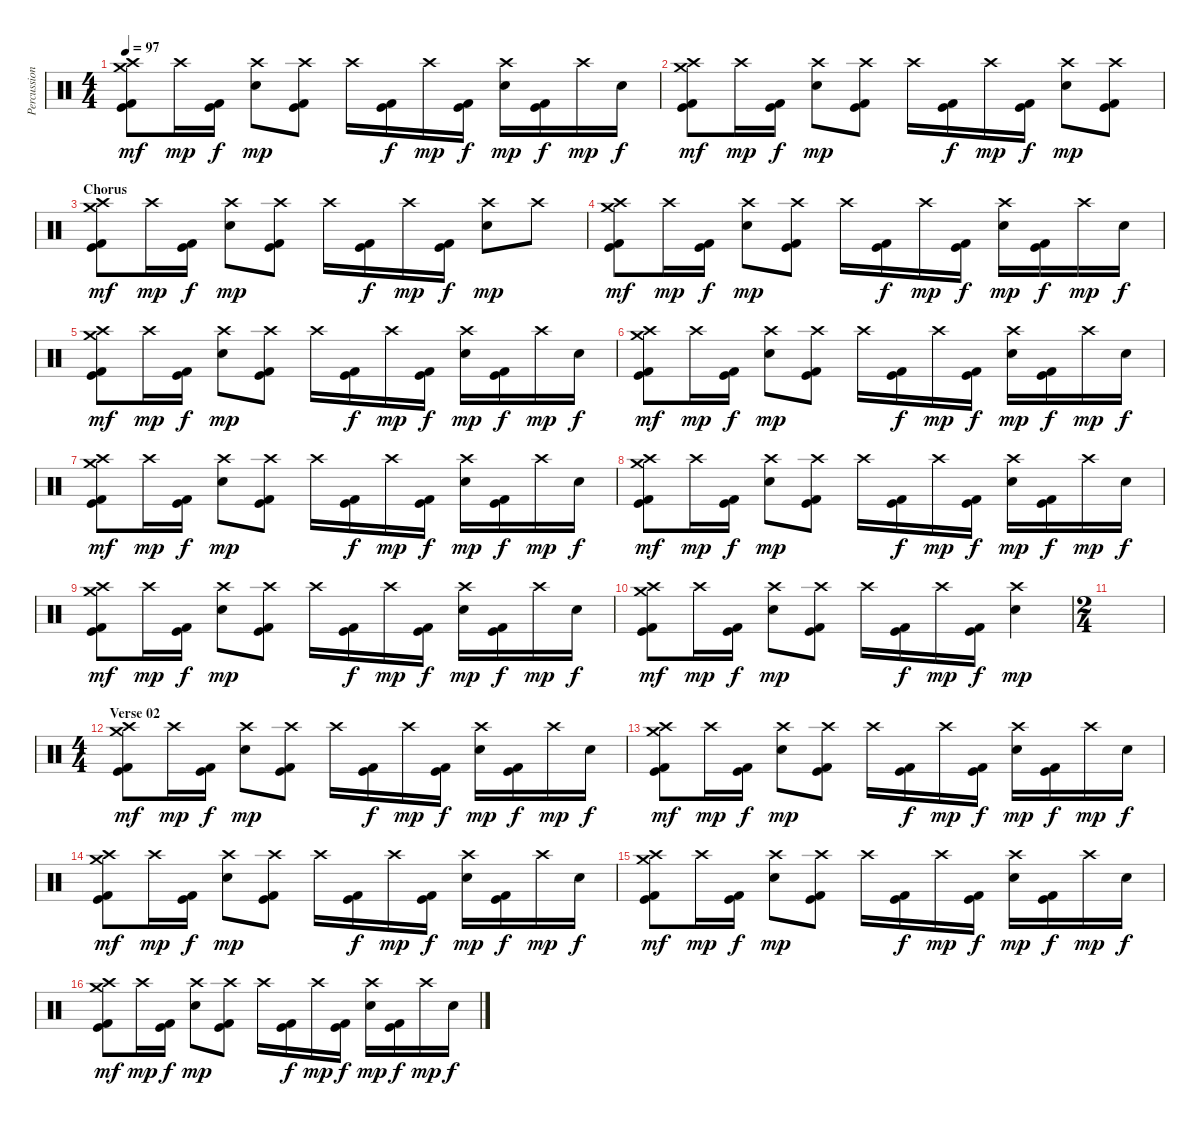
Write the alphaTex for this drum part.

\track ("Percussion - Skinny" "Percussion") {instrument percussion}
\staff {score}
\articulation defaults
\ts (4 4)
\tempo 97
\clef neutral
\ks c
("Crash high (hit)" "Crash medium (hit)" "Kick (hit) 2" "Kick (hit)").8{dy mf} "Crash high (hit)".16{dy mp} ("Kick (hit) 2" "Kick (hit)").16{dy f} ("Crash high (hit)" "Electric Snare (hit)").8{dy mp} ("Crash high (hit)" "Kick (hit) 2" "Kick (hit)").8 "Crash high (hit)".16 ("Kick (hit) 2" "Kick (hit)").16{dy f} "Crash high (hit)".16{dy mp} ("Kick (hit) 2" "Kick (hit)").16{dy f} ("Crash high (hit)" "Electric Snare (hit)").16{dy mp} ("Kick (hit) 2" "Kick (hit)").16{dy f} "Crash high (hit)".16{dy mp} "Electric Snare (hit)".16{dy f} |
("Crash high (hit)" "Crash medium (hit)" "Kick (hit) 2" "Kick (hit)").8{dy mf} "Crash high (hit)".16{dy mp} ("Kick (hit) 2" "Kick (hit)").16{dy f} ("Crash high (hit)" "Electric Snare (hit)").8{dy mp} ("Crash high (hit)" "Kick (hit) 2" "Kick (hit)").8 "Crash high (hit)".16 ("Kick (hit) 2" "Kick (hit)").16{dy f} "Crash high (hit)".16{dy mp} ("Kick (hit) 2" "Kick (hit)").16{dy f} ("Crash high (hit)" "Electric Snare (hit)").8{dy mp} ("Crash high (hit)" "Kick (hit) 2" "Kick (hit)").8 |
\section ("" "Chorus")
("Crash high (hit)" "Crash medium (hit)" "Kick (hit) 2" "Kick (hit)").8{dy mf} "Crash high (hit)".16{dy mp} ("Kick (hit) 2" "Kick (hit)").16{dy f} ("Crash high (hit)" "Electric Snare (hit)").8{dy mp} ("Crash high (hit)" "Kick (hit) 2" "Kick (hit)").8 "Crash high (hit)".16 ("Kick (hit) 2" "Kick (hit)").16{dy f} "Crash high (hit)".16{dy mp} ("Kick (hit) 2" "Kick (hit)").16{dy f} ("Crash high (hit)" "Electric Snare (hit)").8{dy mp} "Crash high (hit)".8 |
("Crash high (hit)" "Crash medium (hit)" "Kick (hit) 2" "Kick (hit)").8{dy mf} "Crash high (hit)".16{dy mp} ("Kick (hit) 2" "Kick (hit)").16{dy f} ("Crash high (hit)" "Electric Snare (hit)").8{dy mp} ("Crash high (hit)" "Kick (hit) 2" "Kick (hit)").8 "Crash high (hit)".16 ("Kick (hit) 2" "Kick (hit)").16{dy f} "Crash high (hit)".16{dy mp} ("Kick (hit) 2" "Kick (hit)").16{dy f} ("Crash high (hit)" "Electric Snare (hit)").16{dy mp} ("Kick (hit) 2" "Kick (hit)").16{dy f} "Crash high (hit)".16{dy mp} "Electric Snare (hit)".16{dy f} |
("Crash high (hit)" "Crash medium (hit)" "Kick (hit) 2" "Kick (hit)").8{dy mf} "Crash high (hit)".16{dy mp} ("Kick (hit) 2" "Kick (hit)").16{dy f} ("Crash high (hit)" "Electric Snare (hit)").8{dy mp} ("Crash high (hit)" "Kick (hit) 2" "Kick (hit)").8 "Crash high (hit)".16 ("Kick (hit) 2" "Kick (hit)").16{dy f} "Crash high (hit)".16{dy mp} ("Kick (hit) 2" "Kick (hit)").16{dy f} ("Crash high (hit)" "Electric Snare (hit)").16{dy mp} ("Kick (hit) 2" "Kick (hit)").16{dy f} "Crash high (hit)".16{dy mp} "Electric Snare (hit)".16{dy f} |
("Crash high (hit)" "Crash medium (hit)" "Kick (hit) 2" "Kick (hit)").8{dy mf} "Crash high (hit)".16{dy mp} ("Kick (hit) 2" "Kick (hit)").16{dy f} ("Crash high (hit)" "Electric Snare (hit)").8{dy mp} ("Crash high (hit)" "Kick (hit) 2" "Kick (hit)").8 "Crash high (hit)".16 ("Kick (hit) 2" "Kick (hit)").16{dy f} "Crash high (hit)".16{dy mp} ("Kick (hit) 2" "Kick (hit)").16{dy f} ("Crash high (hit)" "Electric Snare (hit)").16{dy mp} ("Kick (hit) 2" "Kick (hit)").16{dy f} "Crash high (hit)".16{dy mp} "Electric Snare (hit)".16{dy f} |
("Crash high (hit)" "Crash medium (hit)" "Kick (hit) 2" "Kick (hit)").8{dy mf} "Crash high (hit)".16{dy mp} ("Kick (hit) 2" "Kick (hit)").16{dy f} ("Crash high (hit)" "Electric Snare (hit)").8{dy mp} ("Crash high (hit)" "Kick (hit) 2" "Kick (hit)").8 "Crash high (hit)".16 ("Kick (hit) 2" "Kick (hit)").16{dy f} "Crash high (hit)".16{dy mp} ("Kick (hit) 2" "Kick (hit)").16{dy f} ("Crash high (hit)" "Electric Snare (hit)").16{dy mp} ("Kick (hit) 2" "Kick (hit)").16{dy f} "Crash high (hit)".16{dy mp} "Electric Snare (hit)".16{dy f} |
("Crash high (hit)" "Crash medium (hit)" "Kick (hit) 2" "Kick (hit)").8{dy mf} "Crash high (hit)".16{dy mp} ("Kick (hit) 2" "Kick (hit)").16{dy f} ("Crash high (hit)" "Electric Snare (hit)").8{dy mp} ("Crash high (hit)" "Kick (hit) 2" "Kick (hit)").8 "Crash high (hit)".16 ("Kick (hit) 2" "Kick (hit)").16{dy f} "Crash high (hit)".16{dy mp} ("Kick (hit) 2" "Kick (hit)").16{dy f} ("Crash high (hit)" "Electric Snare (hit)").16{dy mp} ("Kick (hit) 2" "Kick (hit)").16{dy f} "Crash high (hit)".16{dy mp} "Electric Snare (hit)".16{dy f} |
("Crash high (hit)" "Crash medium (hit)" "Kick (hit) 2" "Kick (hit)").8{dy mf} "Crash high (hit)".16{dy mp} ("Kick (hit) 2" "Kick (hit)").16{dy f} ("Crash high (hit)" "Electric Snare (hit)").8{dy mp} ("Crash high (hit)" "Kick (hit) 2" "Kick (hit)").8 "Crash high (hit)".16 ("Kick (hit) 2" "Kick (hit)").16{dy f} "Crash high (hit)".16{dy mp} ("Kick (hit) 2" "Kick (hit)").16{dy f} ("Crash high (hit)" "Electric Snare (hit)").16{dy mp} ("Kick (hit) 2" "Kick (hit)").16{dy f} "Crash high (hit)".16{dy mp} "Electric Snare (hit)".16{dy f} |
("Crash high (hit)" "Crash medium (hit)" "Kick (hit) 2" "Kick (hit)").8{dy mf} "Crash high (hit)".16{dy mp} ("Kick (hit) 2" "Kick (hit)").16{dy f} ("Crash high (hit)" "Electric Snare (hit)").8{dy mp} ("Crash high (hit)" "Kick (hit) 2" "Kick (hit)").8 "Crash high (hit)".16 ("Kick (hit) 2" "Kick (hit)").16{dy f} "Crash high (hit)".16{dy mp} ("Kick (hit) 2" "Kick (hit)").16{dy f} ("Crash high (hit)" "Electric Snare (hit)").4{dy mp} |
\ts (2 4)
|
\ts (4 4)
\section ("" "Verse 02")
("Crash high (hit)" "Crash medium (hit)" "Kick (hit) 2" "Kick (hit)").8{dy mf} "Crash high (hit)".16{dy mp} ("Kick (hit) 2" "Kick (hit)").16{dy f} ("Crash high (hit)" "Electric Snare (hit)").8{dy mp} ("Crash high (hit)" "Kick (hit) 2" "Kick (hit)").8 "Crash high (hit)".16 ("Kick (hit) 2" "Kick (hit)").16{dy f} "Crash high (hit)".16{dy mp} ("Kick (hit) 2" "Kick (hit)").16{dy f} ("Crash high (hit)" "Electric Snare (hit)").16{dy mp} ("Kick (hit) 2" "Kick (hit)").16{dy f} "Crash high (hit)".16{dy mp} "Electric Snare (hit)".16{dy f} |
("Crash high (hit)" "Crash medium (hit)" "Kick (hit) 2" "Kick (hit)").8{dy mf} "Crash high (hit)".16{dy mp} ("Kick (hit) 2" "Kick (hit)").16{dy f} ("Crash high (hit)" "Electric Snare (hit)").8{dy mp} ("Crash high (hit)" "Kick (hit) 2" "Kick (hit)").8 "Crash high (hit)".16 ("Kick (hit) 2" "Kick (hit)").16{dy f} "Crash high (hit)".16{dy mp} ("Kick (hit) 2" "Kick (hit)").16{dy f} ("Crash high (hit)" "Electric Snare (hit)").16{dy mp} ("Kick (hit) 2" "Kick (hit)").16{dy f} "Crash high (hit)".16{dy mp} "Electric Snare (hit)".16{dy f} |
("Crash high (hit)" "Crash medium (hit)" "Kick (hit) 2" "Kick (hit)").8{dy mf} "Crash high (hit)".16{dy mp} ("Kick (hit) 2" "Kick (hit)").16{dy f} ("Crash high (hit)" "Electric Snare (hit)").8{dy mp} ("Crash high (hit)" "Kick (hit) 2" "Kick (hit)").8 "Crash high (hit)".16 ("Kick (hit) 2" "Kick (hit)").16{dy f} "Crash high (hit)".16{dy mp} ("Kick (hit) 2" "Kick (hit)").16{dy f} ("Crash high (hit)" "Electric Snare (hit)").16{dy mp} ("Kick (hit) 2" "Kick (hit)").16{dy f} "Crash high (hit)".16{dy mp} "Electric Snare (hit)".16{dy f} |
("Crash high (hit)" "Crash medium (hit)" "Kick (hit) 2" "Kick (hit)").8{dy mf} "Crash high (hit)".16{dy mp} ("Kick (hit) 2" "Kick (hit)").16{dy f} ("Crash high (hit)" "Electric Snare (hit)").8{dy mp} ("Crash high (hit)" "Kick (hit) 2" "Kick (hit)").8 "Crash high (hit)".16 ("Kick (hit) 2" "Kick (hit)").16{dy f} "Crash high (hit)".16{dy mp} ("Kick (hit) 2" "Kick (hit)").16{dy f} ("Crash high (hit)" "Electric Snare (hit)").16{dy mp} ("Kick (hit) 2" "Kick (hit)").16{dy f} "Crash high (hit)".16{dy mp} "Electric Snare (hit)".16{dy f} |
("Crash high (hit)" "Crash medium (hit)" "Kick (hit) 2" "Kick (hit)").8{dy mf} "Crash high (hit)".16{dy mp} ("Kick (hit) 2" "Kick (hit)").16{dy f} ("Crash high (hit)" "Electric Snare (hit)").8{dy mp} ("Crash high (hit)" "Kick (hit) 2" "Kick (hit)").8 "Crash high (hit)".16 ("Kick (hit) 2" "Kick (hit)").16{dy f} "Crash high (hit)".16{dy mp} ("Kick (hit) 2" "Kick (hit)").16{dy f} ("Crash high (hit)" "Electric Snare (hit)").16{dy mp} ("Kick (hit) 2" "Kick (hit)").16{dy f} "Crash high (hit)".16{dy mp} "Electric Snare (hit)".16{dy f}
